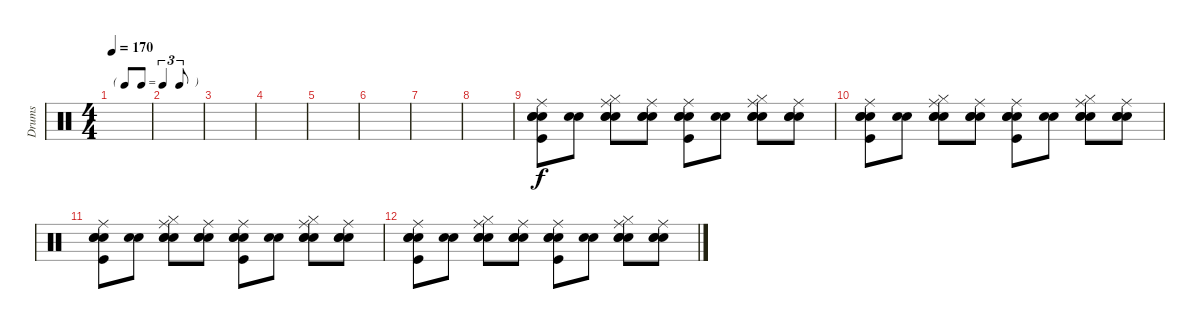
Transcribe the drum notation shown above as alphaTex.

\track ("Drums" "Drums") {instrument percussion}
\staff {score}
\articulation defaults
\ts (4 4)
\tf triplet8th
\tempo 170
\clef neutral
\ks c
|
|
|
|
|
|
|
|
("Snare (hit)" "Kick (hit)" "Snare (hit) 2" "Electric Snare (hit)" "Ride (middle)").8 ("Snare (hit)" "Electric Snare (hit)").8 ("Snare (hit)" "Snare (hit) 2" "Hi-Hat (closed)" "Electric Snare (hit)" "Ride (middle)").8 ("Snare (hit)" "Snare (hit) 2" "Electric Snare (hit)" "Ride (middle)").8 ("Snare (hit)" "Kick (hit)" "Snare (hit) 2" "Electric Snare (hit)" "Ride (middle)").8 ("Snare (hit)" "Electric Snare (hit)").8 ("Snare (hit)" "Snare (hit) 2" "Hi-Hat (closed)" "Electric Snare (hit)" "Ride (middle)").8 ("Snare (hit)" "Snare (hit) 2" "Electric Snare (hit)" "Ride (middle)").8 |
("Snare (hit)" "Kick (hit)" "Snare (hit) 2" "Electric Snare (hit)" "Ride (middle)").8 ("Snare (hit)" "Electric Snare (hit)").8 ("Snare (hit)" "Snare (hit) 2" "Hi-Hat (closed)" "Electric Snare (hit)" "Ride (middle)").8 ("Snare (hit)" "Snare (hit) 2" "Electric Snare (hit)" "Ride (middle)").8 ("Snare (hit)" "Kick (hit)" "Snare (hit) 2" "Electric Snare (hit)" "Ride (middle)").8 ("Snare (hit)" "Electric Snare (hit)").8 ("Snare (hit)" "Snare (hit) 2" "Hi-Hat (closed)" "Electric Snare (hit)" "Ride (middle)").8 ("Snare (hit)" "Snare (hit) 2" "Electric Snare (hit)" "Ride (middle)").8 |
("Snare (hit)" "Kick (hit)" "Snare (hit) 2" "Electric Snare (hit)" "Ride (middle)").8 ("Snare (hit)" "Electric Snare (hit)").8 ("Snare (hit)" "Snare (hit) 2" "Hi-Hat (closed)" "Electric Snare (hit)" "Ride (middle)").8 ("Snare (hit)" "Snare (hit) 2" "Electric Snare (hit)" "Ride (middle)").8 ("Snare (hit)" "Kick (hit)" "Snare (hit) 2" "Electric Snare (hit)" "Ride (middle)").8 ("Snare (hit)" "Electric Snare (hit)").8 ("Snare (hit)" "Snare (hit) 2" "Hi-Hat (closed)" "Electric Snare (hit)" "Ride (middle)").8 ("Snare (hit)" "Snare (hit) 2" "Electric Snare (hit)" "Ride (middle)").8 |
("Snare (hit)" "Kick (hit)" "Snare (hit) 2" "Electric Snare (hit)" "Ride (middle)").8 ("Snare (hit)" "Electric Snare (hit)").8 ("Snare (hit)" "Snare (hit) 2" "Hi-Hat (closed)" "Electric Snare (hit)" "Ride (middle)").8 ("Snare (hit)" "Snare (hit) 2" "Electric Snare (hit)" "Ride (middle)").8 ("Snare (hit)" "Kick (hit)" "Snare (hit) 2" "Electric Snare (hit)" "Ride (middle)").8 ("Snare (hit)" "Electric Snare (hit)").8 ("Snare (hit)" "Snare (hit) 2" "Hi-Hat (closed)" "Electric Snare (hit)" "Ride (middle)").8 ("Snare (hit)" "Snare (hit) 2" "Electric Snare (hit)" "Ride (middle)").8
